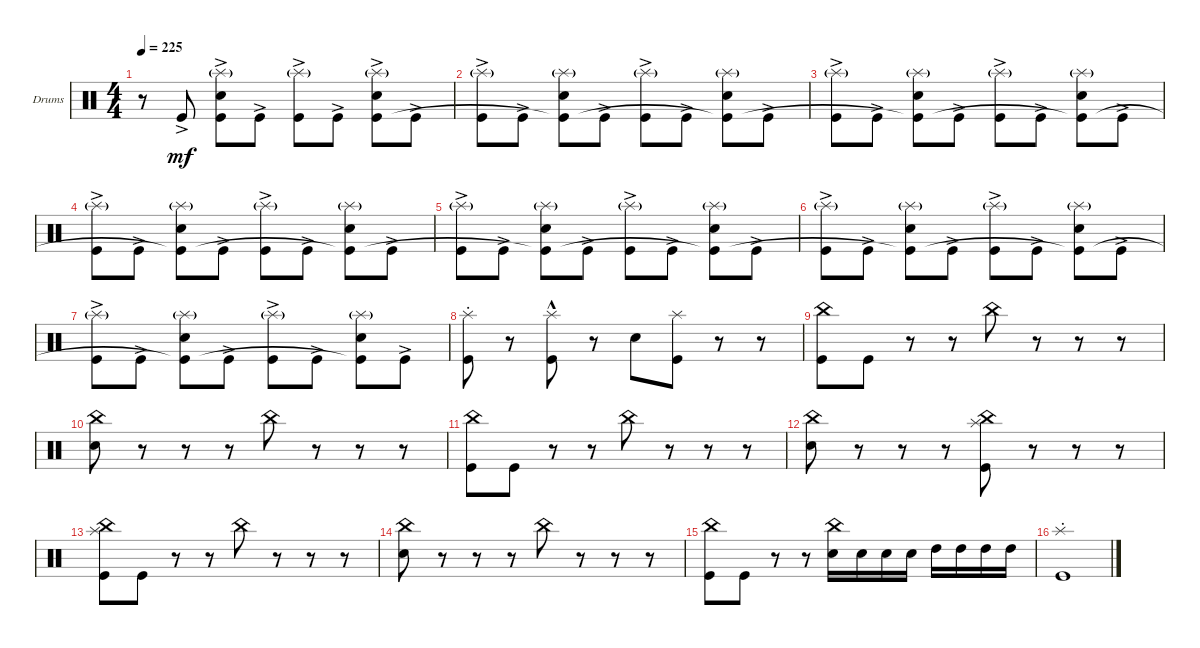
\bracketExtendMode groupsimilarinstruments
\firstSystemTrackNameOrientation horizontal
\otherSystemsTrackNameOrientation horizontal
\track ("Drumkit" "Drums") {instrument percussion}
\staff {score}
\articulation defaults
\ts (4 4)
\tempo 225
\clef neutral
\ks c
r.8{dy mf} "Kick (hit)"{ac}.8 ("Snare (hit) 2" "Splash (hit)"{g} "Kick (hit)"{ac}).8 "Kick (hit)"{ac}.8 ("Kick (hit)"{ac} "Splash (hit)"{g}).8 "Kick (hit)"{ac}.8 ("Snare (hit) 2" "Splash (hit)"{g} "Kick (hit)"{ac}).8 "Kick (hit)"{ac}.8 |
("Kick (hit)"{ac} "Splash (hit)"{g}).8 "Kick (hit)"{ac}.8 ("Snare (hit) 2" "Splash (hit)"{g} "Kick (hit)"{t}).8 "Kick (hit)"{ac}.8 ("Kick (hit)"{ac} "Splash (hit)"{g}).8 "Kick (hit)"{ac}.8 ("Snare (hit) 2" "Splash (hit)"{g} "Kick (hit)"{t}).8 "Kick (hit)"{ac}.8 |
("Kick (hit)"{ac} "Splash (hit)"{g}).8 "Kick (hit)"{ac}.8 ("Snare (hit) 2" "Splash (hit)"{g} "Kick (hit)"{t}).8 "Kick (hit)"{ac}.8 ("Kick (hit)"{ac} "Splash (hit)"{g}).8 "Kick (hit)"{ac}.8 ("Snare (hit) 2" "Splash (hit)"{g} "Kick (hit)"{t}).8 "Kick (hit)"{ac}.8 |
("Kick (hit)"{ac} "Splash (hit)"{g}).8 "Kick (hit)"{ac}.8 ("Snare (hit) 2" "Splash (hit)"{g} "Kick (hit)"{t}).8 "Kick (hit)"{ac}.8 ("Kick (hit)"{ac} "Splash (hit)"{g}).8 "Kick (hit)"{ac}.8 ("Snare (hit) 2" "Splash (hit)"{g} "Kick (hit)"{t}).8 "Kick (hit)"{ac}.8 |
("Kick (hit)"{ac} "Splash (hit)"{g}).8 "Kick (hit)"{ac}.8 ("Snare (hit) 2" "Splash (hit)"{g} "Kick (hit)"{t}).8 "Kick (hit)"{ac}.8 ("Kick (hit)"{ac} "Splash (hit)"{g}).8 "Kick (hit)"{ac}.8 ("Snare (hit) 2" "Splash (hit)"{g} "Kick (hit)"{t}).8 "Kick (hit)"{ac}.8 |
("Kick (hit)"{ac} "Splash (hit)"{g}).8 "Kick (hit)"{ac}.8 ("Snare (hit) 2" "Splash (hit)"{g} "Kick (hit)"{t}).8 "Kick (hit)"{ac}.8 ("Kick (hit)"{ac} "Splash (hit)"{g}).8 "Kick (hit)"{ac}.8 ("Snare (hit) 2" "Splash (hit)"{g} "Kick (hit)"{t}).8 "Kick (hit)"{ac}.8 |
("Kick (hit)"{ac} "Splash (hit)"{g}).8 "Kick (hit)"{ac}.8 ("Snare (hit) 2" "Splash (hit)"{g} "Kick (hit)"{t}).8 "Kick (hit)"{ac}.8 ("Kick (hit)"{ac} "Splash (hit)"{g}).8 "Kick (hit)"{ac}.8 ("Snare (hit) 2" "Splash (hit)"{g} "Kick (hit)"{t}).8 "Kick (hit)"{ac}.8 |
("Kick (hit)" "Splash (hit)"{st}).8 r.8 ("Kick (hit)" "Splash (hit)"{hac}).8 r.8 "Snare (hit) 2".8 ("Kick (hit)" "Splash (hit)").8 r.8 r.8 |
("Kick (hit)" "China (hit)").8 "Kick (hit)".8 r.8 r.8 "China (hit)".8 r.8 r.8 r.8 |
("Snare (hit) 2" "China (hit)").8 r.8 r.8 r.8 "China (hit)".8 r.8 r.8 r.8 |
("Kick (hit)" "China (hit)").8 "Kick (hit)".8 r.8 r.8 "China (hit)".8 r.8 r.8 r.8 |
("Snare (hit) 2" "China (hit)").8 r.8 r.8 r.8 ("Kick (hit)" "China (hit)" "Splash (hit)").8 r.8 r.8 r.8 |
("Kick (hit)" "China (hit)" "Splash (hit)").8 "Kick (hit)".8 r.8 r.8 "China (hit)".8 r.8 r.8 r.8 |
("Snare (hit) 2" "China (hit)").8 r.8 r.8 r.8 "China (hit)".8 r.8 r.8 r.8 |
("Kick (hit)" "China (hit)").8 "Kick (hit)".8 r.8 r.8 ("Snare (hit) 2" "China (hit)").16 "Snare (hit) 2".16 "Snare (hit) 2".16 "Snare (hit) 2".16 "High Tom (hit)".16 "High Tom (hit)".16 "High Tom (hit)".16 "High Tom (hit)".16 |
("Kick (hit)" "Splash (hit)"{st}).1
